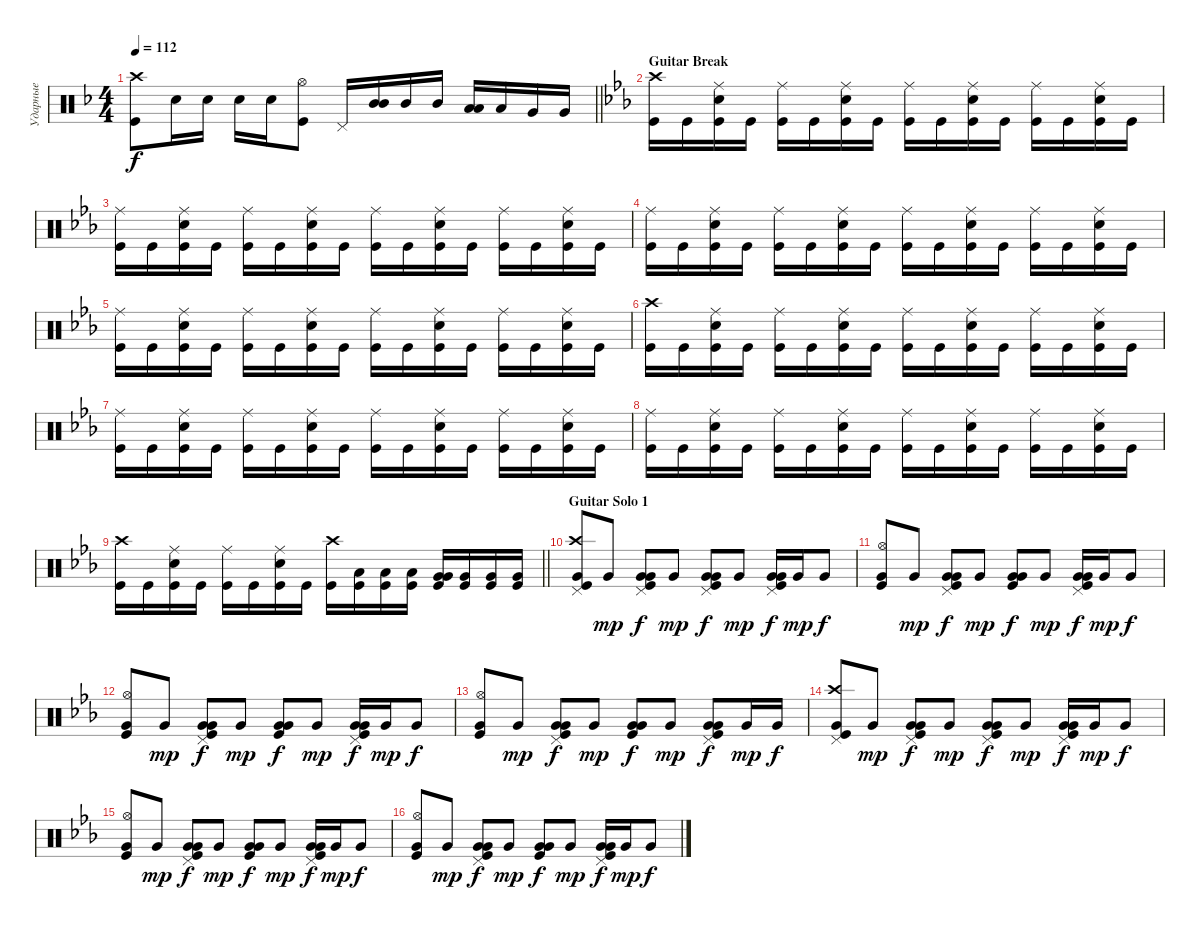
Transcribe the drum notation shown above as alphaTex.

\track ("Ударные" "Ударные") {instrument percussion}
\staff {score}
\articulation defaults
\ts (4 4)
\tempo 112
\clef neutral
\barLineRight lightlight
\ks dminor
("Kick (hit)" "Crash high (hit)").8{dy f} "Snare (hit) 2".16 "Snare (hit) 2".16 "Snare (hit) 2".16 "Snare (hit) 2".16 ("Kick (hit)" "Hi-Hat (open)").8 "Pedal Hi-Hat (hit)".16 ("Mid Tom (hit)" "Mid Tom (hit)").16{bd 240} "Mid Tom (hit)".16 "Mid Tom (hit)".16 ("Low Tom (hit)" "Low Tom (hit)").16{bd 240} "Low Tom (hit)".16 "Very Low Tom (hit)".16 "Very Low Tom (hit)".16 |
\section ("" "Guitar Break")
\ks cminor
("Kick (hit)" "Crash high (hit)").16 "Kick (hit)".16 ("Kick (hit)" "Snare (hit) 2" "Ride (middle)").16 "Kick (hit)".16 ("Kick (hit)" "Ride (middle)").16 "Kick (hit)".16 ("Kick (hit)" "Snare (hit) 2" "Ride (middle)").16 "Kick (hit)".16 ("Kick (hit)" "Ride (middle)").16 "Kick (hit)".16 ("Kick (hit)" "Snare (hit) 2" "Ride (middle)").16 "Kick (hit)".16 ("Kick (hit)" "Ride (middle)").16 "Kick (hit)".16 ("Kick (hit)" "Snare (hit) 2" "Ride (middle)").16 "Kick (hit)".16 |
("Kick (hit)" "Ride (middle)").16 "Kick (hit)".16 ("Kick (hit)" "Snare (hit) 2" "Ride (middle)").16 "Kick (hit)".16 ("Kick (hit)" "Ride (middle)").16 "Kick (hit)".16 ("Kick (hit)" "Snare (hit) 2" "Ride (middle)").16 "Kick (hit)".16 ("Kick (hit)" "Ride (middle)").16 "Kick (hit)".16 ("Kick (hit)" "Snare (hit) 2" "Ride (middle)").16 "Kick (hit)".16 ("Kick (hit)" "Ride (middle)").16 "Kick (hit)".16 ("Kick (hit)" "Snare (hit) 2" "Ride (middle)").16 "Kick (hit)".16 |
("Kick (hit)" "Ride (middle)").16 "Kick (hit)".16 ("Kick (hit)" "Snare (hit) 2" "Ride (middle)").16 "Kick (hit)".16 ("Kick (hit)" "Ride (middle)").16 "Kick (hit)".16 ("Kick (hit)" "Snare (hit) 2" "Ride (middle)").16 "Kick (hit)".16 ("Kick (hit)" "Ride (middle)").16 "Kick (hit)".16 ("Kick (hit)" "Snare (hit) 2" "Ride (middle)").16 "Kick (hit)".16 ("Kick (hit)" "Ride (middle)").16 "Kick (hit)".16 ("Kick (hit)" "Snare (hit) 2" "Ride (middle)").16 "Kick (hit)".16 |
("Kick (hit)" "Ride (middle)").16 "Kick (hit)".16 ("Kick (hit)" "Snare (hit) 2" "Ride (middle)").16 "Kick (hit)".16 ("Kick (hit)" "Ride (middle)").16 "Kick (hit)".16 ("Kick (hit)" "Snare (hit) 2" "Ride (middle)").16 "Kick (hit)".16 ("Kick (hit)" "Ride (middle)").16 "Kick (hit)".16 ("Kick (hit)" "Snare (hit) 2" "Ride (middle)").16 "Kick (hit)".16 ("Kick (hit)" "Ride (middle)").16 "Kick (hit)".16 ("Kick (hit)" "Snare (hit) 2" "Ride (middle)").16 "Kick (hit)".16 |
("Kick (hit)" "Crash high (hit)").16 "Kick (hit)".16 ("Kick (hit)" "Snare (hit) 2" "Ride (middle)").16 "Kick (hit)".16 ("Kick (hit)" "Ride (middle)").16 "Kick (hit)".16 ("Kick (hit)" "Snare (hit) 2" "Ride (middle)").16 "Kick (hit)".16 ("Kick (hit)" "Ride (middle)").16 "Kick (hit)".16 ("Kick (hit)" "Snare (hit) 2" "Ride (middle)").16 "Kick (hit)".16 ("Kick (hit)" "Ride (middle)").16 "Kick (hit)".16 ("Kick (hit)" "Snare (hit) 2" "Ride (middle)").16 "Kick (hit)".16 |
("Kick (hit)" "Ride (middle)").16 "Kick (hit)".16 ("Kick (hit)" "Snare (hit) 2" "Ride (middle)").16 "Kick (hit)".16 ("Kick (hit)" "Ride (middle)").16 "Kick (hit)".16 ("Kick (hit)" "Snare (hit) 2" "Ride (middle)").16 "Kick (hit)".16 ("Kick (hit)" "Ride (middle)").16 "Kick (hit)".16 ("Kick (hit)" "Snare (hit) 2" "Ride (middle)").16 "Kick (hit)".16 ("Kick (hit)" "Ride (middle)").16 "Kick (hit)".16 ("Kick (hit)" "Snare (hit) 2" "Ride (middle)").16 "Kick (hit)".16 |
("Kick (hit)" "Ride (middle)").16 "Kick (hit)".16 ("Kick (hit)" "Snare (hit) 2" "Ride (middle)").16 "Kick (hit)".16 ("Kick (hit)" "Ride (middle)").16 "Kick (hit)".16 ("Kick (hit)" "Snare (hit) 2" "Ride (middle)").16 "Kick (hit)".16 ("Kick (hit)" "Ride (middle)").16 "Kick (hit)".16 ("Kick (hit)" "Snare (hit) 2" "Ride (middle)").16 "Kick (hit)".16 ("Kick (hit)" "Ride (middle)").16 "Kick (hit)".16 ("Kick (hit)" "Snare (hit) 2" "Ride (middle)").16 "Kick (hit)".16 |
\barLineRight lightlight
("Kick (hit)" "Crash high (hit)").16 "Kick (hit)".16 ("Kick (hit)" "Snare (hit) 2" "Ride (middle)").16 "Kick (hit)".16 ("Kick (hit)" "Ride (middle)").16 "Kick (hit)".16 ("Kick (hit)" "Snare (hit) 2" "Ride (middle)").16 "Kick (hit)".16 ("Kick (hit)" "Crash high (hit)").16 ("Kick (hit)" "Low Tom (hit)").16 ("Kick (hit)" "Low Tom (hit)").16 ("Kick (hit)" "Low Tom (hit)").16 ("Kick (hit)" "Very Low Tom (hit)" "Very Low Tom (hit)").16{bd 120} ("Kick (hit)" "Very Low Tom (hit)").16 ("Kick (hit)" "Very Low Tom (hit)").16 ("Kick (hit)" "Very Low Tom (hit)").16 |
\section ("" "Guitar Solo 1")
("Kick (hit)" "Very Low Tom (hit)" "Crash high (hit)" "Pedal Hi-Hat (hit)").8 "Very Low Tom (hit)".8{dy mp} ("Very Low Tom (hit)" "Very Low Tom (hit)" "Kick (hit)" "Pedal Hi-Hat (hit)").8{bd 120 dy f} "Very Low Tom (hit)".8{dy mp} ("Very Low Tom (hit)" "Very Low Tom (hit)" "Pedal Hi-Hat (hit)" "Kick (hit)").8{bd 120 dy f} "Very Low Tom (hit)".8{dy mp} ("Very Low Tom (hit)" "Very Low Tom (hit)" "Kick (hit)" "Pedal Hi-Hat (hit)").16{bd 120 dy f} "Very Low Tom (hit)".16{dy mp} "Very Low Tom (hit)".8{dy f} |
("Kick (hit)" "Very Low Tom (hit)" "Hi-Hat (open)").8 "Very Low Tom (hit)".8{dy mp} ("Very Low Tom (hit)" "Very Low Tom (hit)" "Kick (hit)" "Pedal Hi-Hat (hit)").8{bd 120 dy f} "Very Low Tom (hit)".8{dy mp} ("Very Low Tom (hit)" "Very Low Tom (hit)" "Kick (hit)").8{bd 120 dy f} "Very Low Tom (hit)".8{dy mp} ("Very Low Tom (hit)" "Very Low Tom (hit)" "Kick (hit)" "Pedal Hi-Hat (hit)").16{bd 120 dy f} "Very Low Tom (hit)".16{dy mp} "Very Low Tom (hit)".8{dy f} |
("Kick (hit)" "Very Low Tom (hit)" "Hi-Hat (open)").8 "Very Low Tom (hit)".8{dy mp} ("Very Low Tom (hit)" "Very Low Tom (hit)" "Kick (hit)" "Pedal Hi-Hat (hit)").8{bd 120 dy f} "Very Low Tom (hit)".8{dy mp} ("Very Low Tom (hit)" "Very Low Tom (hit)" "Kick (hit)").8{bd 120 dy f} "Very Low Tom (hit)".8{dy mp} ("Very Low Tom (hit)" "Very Low Tom (hit)" "Kick (hit)" "Pedal Hi-Hat (hit)").16{bd 120 dy f} "Very Low Tom (hit)".16{dy mp} "Very Low Tom (hit)".8{dy f} |
("Kick (hit)" "Very Low Tom (hit)" "Hi-Hat (open)").8 "Very Low Tom (hit)".8{dy mp} ("Very Low Tom (hit)" "Very Low Tom (hit)" "Kick (hit)" "Pedal Hi-Hat (hit)").8{bd 120 dy f} "Very Low Tom (hit)".8{dy mp} ("Very Low Tom (hit)" "Very Low Tom (hit)" "Kick (hit)").8{bd 120 dy f} "Very Low Tom (hit)".8{dy mp} ("Very Low Tom (hit)" "Very Low Tom (hit)" "Kick (hit)" "Pedal Hi-Hat (hit)").8{bd 120 dy f} "Very Low Tom (hit)".16{dy mp} "Very Low Tom (hit)".16{dy f} |
("Kick (hit)" "Very Low Tom (hit)" "Crash high (hit)" "Pedal Hi-Hat (hit)").8 "Very Low Tom (hit)".8{dy mp} ("Very Low Tom (hit)" "Very Low Tom (hit)" "Kick (hit)" "Pedal Hi-Hat (hit)").8{bd 120 dy f} "Very Low Tom (hit)".8{dy mp} ("Very Low Tom (hit)" "Very Low Tom (hit)" "Pedal Hi-Hat (hit)" "Kick (hit)").8{bd 120 dy f} "Very Low Tom (hit)".8{dy mp} ("Very Low Tom (hit)" "Very Low Tom (hit)" "Kick (hit)" "Pedal Hi-Hat (hit)").16{bd 120 dy f} "Very Low Tom (hit)".16{dy mp} "Very Low Tom (hit)".8{dy f} |
("Kick (hit)" "Very Low Tom (hit)" "Hi-Hat (open)").8 "Very Low Tom (hit)".8{dy mp} ("Very Low Tom (hit)" "Very Low Tom (hit)" "Kick (hit)" "Pedal Hi-Hat (hit)").8{bd 120 dy f} "Very Low Tom (hit)".8{dy mp} ("Very Low Tom (hit)" "Very Low Tom (hit)" "Kick (hit)").8{bd 120 dy f} "Very Low Tom (hit)".8{dy mp} ("Very Low Tom (hit)" "Very Low Tom (hit)" "Kick (hit)" "Pedal Hi-Hat (hit)").16{bd 120 dy f} "Very Low Tom (hit)".16{dy mp} "Very Low Tom (hit)".8{dy f} |
("Kick (hit)" "Very Low Tom (hit)" "Hi-Hat (open)").8 "Very Low Tom (hit)".8{dy mp} ("Very Low Tom (hit)" "Very Low Tom (hit)" "Kick (hit)" "Pedal Hi-Hat (hit)").8{bd 120 dy f} "Very Low Tom (hit)".8{dy mp} ("Very Low Tom (hit)" "Very Low Tom (hit)" "Kick (hit)").8{bd 120 dy f} "Very Low Tom (hit)".8{dy mp} ("Very Low Tom (hit)" "Very Low Tom (hit)" "Kick (hit)" "Pedal Hi-Hat (hit)").16{bd 120 dy f} "Very Low Tom (hit)".16{dy mp} "Very Low Tom (hit)".8{dy f}
